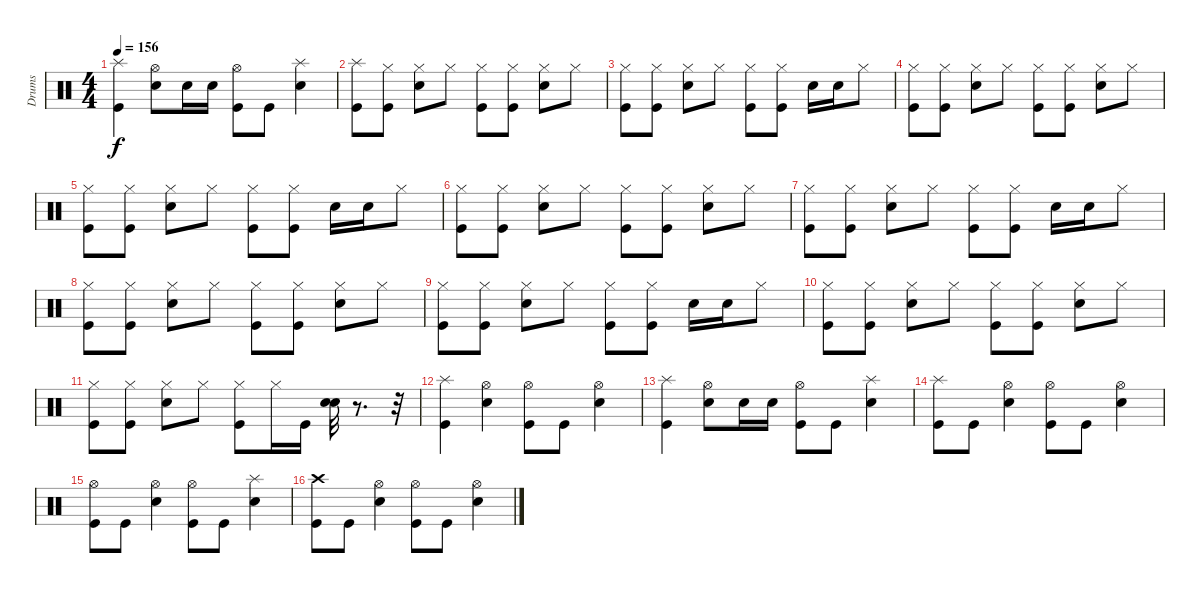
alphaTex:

\track ("Drums" "Drums") {instrument percussion}
\staff {score}
\articulation defaults
\ts (4 4)
\tempo 156
\clef neutral
\ks c
("Splash (hit)" "Kick (hit)").4{dy f} ("Hi-Hat (open)" "Snare (hit) 2").8 "Snare (hit) 2".16 "Snare (hit) 2".16 ("Hi-Hat (open)" "Kick (hit)").8 "Kick (hit)".8 ("Splash (hit)" "Snare (hit) 2").4 |
("Splash (hit)" "Kick (hit)").8 ("Hi-Hat (closed)" "Kick (hit)").8 ("Hi-Hat (closed)" "Snare (hit) 2").8 "Hi-Hat (closed)".8 ("Hi-Hat (closed)" "Kick (hit)").8 ("Hi-Hat (closed)" "Kick (hit)").8 ("Hi-Hat (closed)" "Snare (hit) 2").8 "Hi-Hat (closed)".8 |
("Hi-Hat (closed)" "Kick (hit)").8 ("Hi-Hat (closed)" "Kick (hit)").8 ("Hi-Hat (closed)" "Snare (hit) 2").8 "Hi-Hat (closed)".8 ("Hi-Hat (closed)" "Kick (hit)").8 ("Hi-Hat (closed)" "Kick (hit)").8 "Snare (hit) 2".16 "Snare (hit) 2".16 "Hi-Hat (closed)".8 |
("Hi-Hat (closed)" "Kick (hit)").8 ("Hi-Hat (closed)" "Kick (hit)").8 ("Hi-Hat (closed)" "Snare (hit) 2").8 "Hi-Hat (closed)".8 ("Hi-Hat (closed)" "Kick (hit)").8 ("Hi-Hat (closed)" "Kick (hit)").8 ("Hi-Hat (closed)" "Snare (hit) 2").8 "Hi-Hat (closed)".8 |
("Hi-Hat (closed)" "Kick (hit)").8 ("Hi-Hat (closed)" "Kick (hit)").8 ("Hi-Hat (closed)" "Snare (hit) 2").8 "Hi-Hat (closed)".8 ("Hi-Hat (closed)" "Kick (hit)").8 ("Hi-Hat (closed)" "Kick (hit)").8 "Snare (hit) 2".16 "Snare (hit) 2".16 "Hi-Hat (closed)".8 |
("Hi-Hat (closed)" "Kick (hit)").8 ("Hi-Hat (closed)" "Kick (hit)").8 ("Hi-Hat (closed)" "Snare (hit) 2").8 "Hi-Hat (closed)".8 ("Hi-Hat (closed)" "Kick (hit)").8 ("Hi-Hat (closed)" "Kick (hit)").8 ("Hi-Hat (closed)" "Snare (hit) 2").8 "Hi-Hat (closed)".8 |
("Hi-Hat (closed)" "Kick (hit)").8 ("Hi-Hat (closed)" "Kick (hit)").8 ("Hi-Hat (closed)" "Snare (hit) 2").8 "Hi-Hat (closed)".8 ("Hi-Hat (closed)" "Kick (hit)").8 ("Hi-Hat (closed)" "Kick (hit)").8 "Snare (hit) 2".16 "Snare (hit) 2".16 "Hi-Hat (closed)".8 |
("Hi-Hat (closed)" "Kick (hit)").8 ("Hi-Hat (closed)" "Kick (hit)").8 ("Hi-Hat (closed)" "Snare (hit) 2").8 "Hi-Hat (closed)".8 ("Hi-Hat (closed)" "Kick (hit)").8 ("Hi-Hat (closed)" "Kick (hit)").8 ("Hi-Hat (closed)" "Snare (hit) 2").8 "Hi-Hat (closed)".8 |
("Hi-Hat (closed)" "Kick (hit)").8 ("Hi-Hat (closed)" "Kick (hit)").8 ("Hi-Hat (closed)" "Snare (hit) 2").8 "Hi-Hat (closed)".8 ("Hi-Hat (closed)" "Kick (hit)").8 ("Hi-Hat (closed)" "Kick (hit)").8 "Snare (hit) 2".16 "Snare (hit) 2".16 "Hi-Hat (closed)".8 |
("Hi-Hat (closed)" "Kick (hit)").8 ("Hi-Hat (closed)" "Kick (hit)").8 ("Hi-Hat (closed)" "Snare (hit) 2").8 "Hi-Hat (closed)".8 ("Hi-Hat (closed)" "Kick (hit)").8 ("Hi-Hat (closed)" "Kick (hit)").8 ("Hi-Hat (closed)" "Snare (hit) 2").8 "Hi-Hat (closed)".8 |
("Hi-Hat (closed)" "Kick (hit)").8 ("Hi-Hat (closed)" "Kick (hit)").8 ("Hi-Hat (closed)" "Snare (hit) 2").8 "Hi-Hat (closed)".8 ("Hi-Hat (closed)" "Kick (hit)").8 "Hi-Hat (closed)".16 "Kick (hit)".16 ("Snare (hit) 2" "Snare (hit) 2").32 r.8{d} r.32 |
("Splash (hit)" "Kick (hit)").4 ("Hi-Hat (open)" "Snare (hit) 2").4 ("Hi-Hat (open)" "Kick (hit)").8 "Kick (hit)".8 ("Hi-Hat (open)" "Snare (hit) 2").4 |
("Splash (hit)" "Kick (hit)").4 ("Hi-Hat (open)" "Snare (hit) 2").8 "Snare (hit) 2".16 "Snare (hit) 2".16 ("Hi-Hat (open)" "Kick (hit)").8 "Kick (hit)".8 ("Splash (hit)" "Snare (hit) 2").4 |
("Splash (hit)" "Kick (hit)").8 "Kick (hit)".8 ("Hi-Hat (open)" "Snare (hit) 2").4 ("Hi-Hat (open)" "Kick (hit)").8 "Kick (hit)".8 ("Hi-Hat (open)" "Snare (hit) 2").4 |
("Hi-Hat (open)" "Kick (hit)").8 "Kick (hit)".8 ("Hi-Hat (open)" "Snare (hit) 2").4 ("Hi-Hat (open)" "Kick (hit)").8 "Kick (hit)".8 ("Splash (hit)" "Snare (hit) 2").4 |
("Crash high (hit)" "Kick (hit)").8 "Kick (hit)".8 ("Hi-Hat (open)" "Snare (hit) 2").4 ("Hi-Hat (open)" "Kick (hit)").8 "Kick (hit)".8 ("Hi-Hat (open)" "Snare (hit) 2").4
